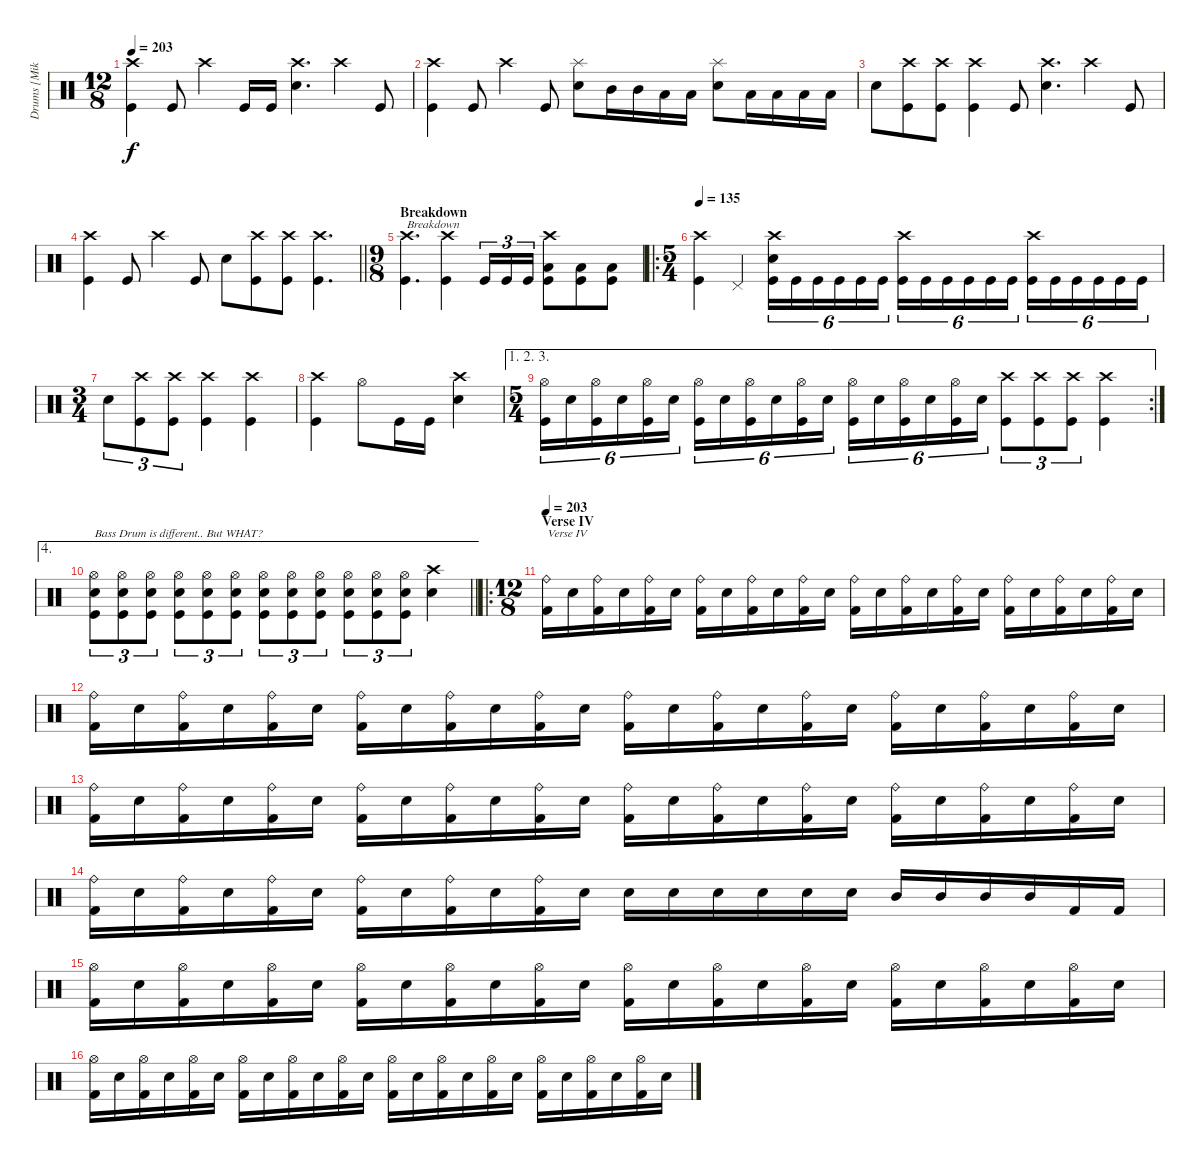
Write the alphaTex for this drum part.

\track ("Drums [Mike Smith]" "Drums [Mik") {instrument percussion}
\staff {score}
\articulation defaults
\ts (12 8)
\tempo 203
\clef neutral
\ks c
("Crash high (hit)" "Kick (hit)").4{dy f} "Kick (hit)".8 "Crash high (hit)".4 "Kick (hit)".16 "Kick (hit)".16 ("Crash high (hit)" "Electric Snare (hit)").4{d} "Crash high (hit)".4 "Kick (hit)".8 |
("Crash high (hit)" "Kick (hit)").4 "Kick (hit)".8 "Crash high (hit)".4 "Kick (hit)".8 ("Splash (hit)" "Electric Snare (hit)").8 "Mid Tom (hit)".16 "Mid Tom (hit)".16 "Low Tom (hit)".16 "Low Tom (hit)".16 ("Splash (hit)" "Electric Snare (hit)").8 "Low Tom (hit)".16 "Low Tom (hit)".16 "Low Floor Tom (hit)".16 "Low Floor Tom (hit)".16 |
"Electric Snare (hit)".8 ("Crash high (hit)" "Kick (hit)").8 ("Crash high (hit)" "Kick (hit)").8 ("Crash high (hit)" "Kick (hit)").4 "Kick (hit)".8 ("Crash high (hit)" "Electric Snare (hit)").4{d} "Crash high (hit)".4 "Kick (hit)".8 |
\barLineRight lightlight
("Crash high (hit)" "Kick (hit)").4 "Kick (hit)".8 "Crash high (hit)".4 "Kick (hit)".8 "Electric Snare (hit)".8 ("Crash high (hit)" "Kick (hit)").8 ("Crash high (hit)" "Kick (hit)").8 ("Crash high (hit)" "Kick (hit)").4{d} |
\ts (9 8)
\section ("" "Breakdown")
("Crash high (hit)" "Kick (hit)").4{d txt "Breakdown"} ("Crash high (hit)" "Kick (hit)").4 "Kick (hit)".16{tu (3 2)} "Kick (hit)".16{tu (3 2)} "Kick (hit)".16{tu (3 2)} ("Crash high (hit)" "Low Floor Tom (hit)" "Kick (hit)").8 ("Low Floor Tom (hit)" "Kick (hit)").8 ("Low Floor Tom (hit)" "Kick (hit)").8 |
\ro
\ts (5 4)
\tempo 135
("Crash high (hit)" "Kick (hit)").4 "Pedal Hi-Hat (hit)".4 ("Crash high (hit)" "Electric Snare (hit)" "Kick (hit)").16{tu (6 4)} "Kick (hit)".16{tu (6 4)} "Kick (hit)".16{tu (6 4)} "Kick (hit)".16{tu (6 4)} "Kick (hit)".16{tu (6 4)} "Kick (hit)".16{tu (6 4)} ("Crash high (hit)" "Kick (hit)").16{tu (6 4)} "Kick (hit)".16{tu (6 4)} "Kick (hit)".16{tu (6 4)} "Kick (hit)".16{tu (6 4)} "Kick (hit)".16{tu (6 4)} "Kick (hit)".16{tu (6 4)} ("Crash high (hit)" "Kick (hit)").16{tu (6 4)} "Kick (hit)".16{tu (6 4)} "Kick (hit)".16{tu (6 4)} "Kick (hit)".16{tu (6 4)} "Kick (hit)".16{tu (6 4)} "Kick (hit)".16{tu (6 4)} |
\ts (3 4)
"Electric Snare (hit)".8{tu (3 2)} ("Crash high (hit)" "Kick (hit)").8{tu (3 2)} ("Crash high (hit)" "Kick (hit)").8{tu (3 2)} ("Crash high (hit)" "Kick (hit)").4 ("Crash high (hit)" "Kick (hit)").4 |
("Crash high (hit)" "Kick (hit)").4 "Hi-Hat (open)".8 "Kick (hit)".16 "Kick (hit)".16 ("Crash high (hit)" "Electric Snare (hit)").4 |
\ae (1 2 3)
\rc 2
\ts (5 4)
("Hi-Hat (open)" "Kick (hit)").16{tu (6 4)} "Electric Snare (hit)".16{tu (6 4)} ("Hi-Hat (open)" "Kick (hit)").16{tu (6 4)} "Electric Snare (hit)".16{tu (6 4)} ("Hi-Hat (open)" "Kick (hit)").16{tu (6 4)} "Electric Snare (hit)".16{tu (6 4)} ("Hi-Hat (open)" "Kick (hit)").16{tu (6 4)} "Electric Snare (hit)".16{tu (6 4)} ("Hi-Hat (open)" "Kick (hit)").16{tu (6 4)} "Electric Snare (hit)".16{tu (6 4)} ("Hi-Hat (open)" "Kick (hit)").16{tu (6 4)} "Electric Snare (hit)".16{tu (6 4)} ("Hi-Hat (open)" "Kick (hit)").16{tu (6 4)} "Electric Snare (hit)".16{tu (6 4)} ("Hi-Hat (open)" "Kick (hit)").16{tu (6 4)} "Electric Snare (hit)".16{tu (6 4)} ("Hi-Hat (open)" "Kick (hit)").16{tu (6 4)} "Electric Snare (hit)".16{tu (6 4)} ("Crash high (hit)" "Kick (hit)").8{tu (3 2)} ("Crash high (hit)" "Kick (hit)").8{tu (3 2)} ("Crash high (hit)" "Kick (hit)").8{tu (3 2)} ("Crash high (hit)" "Kick (hit)").4 |
\ae 4
\barLineRight lightlight
("Kick (hit)" "Hi-Hat (open)" "Electric Snare (hit)").8{tu (3 2) txt "Bass Drum is different.. But WHAT?"} ("Kick (hit)" "Hi-Hat (open)" "Electric Snare (hit)").8{tu (3 2)} ("Kick (hit)" "Hi-Hat (open)" "Electric Snare (hit)").8{tu (3 2)} ("Kick (hit)" "Hi-Hat (open)" "Electric Snare (hit)").8{tu (3 2)} ("Kick (hit)" "Hi-Hat (open)" "Electric Snare (hit)").8{tu (3 2)} ("Kick (hit)" "Hi-Hat (open)" "Electric Snare (hit)").8{tu (3 2)} ("Kick (hit)" "Hi-Hat (open)" "Electric Snare (hit)").8{tu (3 2)} ("Kick (hit)" "Hi-Hat (open)" "Electric Snare (hit)").8{tu (3 2)} ("Kick (hit)" "Hi-Hat (open)" "Electric Snare (hit)").8{tu (3 2)} ("Kick (hit)" "Hi-Hat (open)" "Electric Snare (hit)").8{tu (3 2)} ("Kick (hit)" "Hi-Hat (open)" "Electric Snare (hit)").8{tu (3 2)} ("Kick (hit)" "Hi-Hat (open)" "Electric Snare (hit)").8{tu (3 2)} ("Crash high (hit)" "Electric Snare (hit)").4 |
\ro
\ts (12 8)
\section ("" "Verse IV")
\tempo 203
("Ride (bell)" "Kick (hit) 2").16{txt "Verse IV"} "Electric Snare (hit)".16 ("Ride (bell)" "Kick (hit) 2").16 "Electric Snare (hit)".16 ("Ride (bell)" "Kick (hit) 2").16 "Electric Snare (hit)".16 ("Ride (bell)" "Kick (hit) 2").16 "Electric Snare (hit)".16 ("Ride (bell)" "Kick (hit) 2").16 "Electric Snare (hit)".16 ("Ride (bell)" "Kick (hit) 2").16 "Electric Snare (hit)".16 ("Ride (bell)" "Kick (hit) 2").16 "Electric Snare (hit)".16 ("Ride (bell)" "Kick (hit) 2").16 "Electric Snare (hit)".16 ("Ride (bell)" "Kick (hit) 2").16 "Electric Snare (hit)".16 ("Ride (bell)" "Kick (hit) 2").16 "Electric Snare (hit)".16 ("Ride (bell)" "Kick (hit) 2").16 "Electric Snare (hit)".16 ("Ride (bell)" "Kick (hit) 2").16 "Electric Snare (hit)".16 |
("Ride (bell)" "Kick (hit) 2").16 "Electric Snare (hit)".16 ("Ride (bell)" "Kick (hit) 2").16 "Electric Snare (hit)".16 ("Ride (bell)" "Kick (hit) 2").16 "Electric Snare (hit)".16 ("Ride (bell)" "Kick (hit) 2").16 "Electric Snare (hit)".16 ("Ride (bell)" "Kick (hit) 2").16 "Electric Snare (hit)".16 ("Ride (bell)" "Kick (hit) 2").16 "Electric Snare (hit)".16 ("Ride (bell)" "Kick (hit) 2").16 "Electric Snare (hit)".16 ("Ride (bell)" "Kick (hit) 2").16 "Electric Snare (hit)".16 ("Ride (bell)" "Kick (hit) 2").16 "Electric Snare (hit)".16 ("Ride (bell)" "Kick (hit) 2").16 "Electric Snare (hit)".16 ("Ride (bell)" "Kick (hit) 2").16 "Electric Snare (hit)".16 ("Ride (bell)" "Kick (hit) 2").16 "Electric Snare (hit)".16 |
("Ride (bell)" "Kick (hit) 2").16 "Electric Snare (hit)".16 ("Ride (bell)" "Kick (hit) 2").16 "Electric Snare (hit)".16 ("Ride (bell)" "Kick (hit) 2").16 "Electric Snare (hit)".16 ("Ride (bell)" "Kick (hit) 2").16 "Electric Snare (hit)".16 ("Ride (bell)" "Kick (hit) 2").16 "Electric Snare (hit)".16 ("Ride (bell)" "Kick (hit) 2").16 "Electric Snare (hit)".16 ("Ride (bell)" "Kick (hit) 2").16 "Electric Snare (hit)".16 ("Ride (bell)" "Kick (hit) 2").16 "Electric Snare (hit)".16 ("Ride (bell)" "Kick (hit) 2").16 "Electric Snare (hit)".16 ("Ride (bell)" "Kick (hit) 2").16 "Electric Snare (hit)".16 ("Ride (bell)" "Kick (hit) 2").16 "Electric Snare (hit)".16 ("Ride (bell)" "Kick (hit) 2").16 "Electric Snare (hit)".16 |
("Ride (bell)" "Kick (hit) 2").16 "Electric Snare (hit)".16 ("Ride (bell)" "Kick (hit) 2").16 "Electric Snare (hit)".16 ("Ride (bell)" "Kick (hit) 2").16 "Electric Snare (hit)".16 ("Ride (bell)" "Kick (hit) 2").16 "Electric Snare (hit)".16 ("Ride (bell)" "Kick (hit) 2").16 "Electric Snare (hit)".16 ("Ride (bell)" "Kick (hit) 2").16 "Electric Snare (hit)".16 "Electric Snare (hit)".16 "Electric Snare (hit)".16 "Electric Snare (hit)".16 "Electric Snare (hit)".16 "Electric Snare (hit)".16 "Electric Snare (hit)".16 "Mid Tom (hit)".16 "Mid Tom (hit)".16 "Mid Tom (hit)".16 "Mid Tom (hit)".16 "Kick (hit) 2".16 "Kick (hit) 2".16 |
("Hi-Hat (open)" "Kick (hit) 2").16 "Electric Snare (hit)".16 ("Hi-Hat (open)" "Kick (hit) 2").16 "Electric Snare (hit)".16 ("Hi-Hat (open)" "Kick (hit) 2").16 "Electric Snare (hit)".16 ("Hi-Hat (open)" "Kick (hit) 2").16 "Electric Snare (hit)".16 ("Hi-Hat (open)" "Kick (hit) 2").16 "Electric Snare (hit)".16 ("Hi-Hat (open)" "Kick (hit) 2").16 "Electric Snare (hit)".16 ("Hi-Hat (open)" "Kick (hit) 2").16 "Electric Snare (hit)".16 ("Hi-Hat (open)" "Kick (hit) 2").16 "Electric Snare (hit)".16 ("Hi-Hat (open)" "Kick (hit) 2").16 "Electric Snare (hit)".16 ("Hi-Hat (open)" "Kick (hit) 2").16 "Electric Snare (hit)".16 ("Hi-Hat (open)" "Kick (hit) 2").16 "Electric Snare (hit)".16 ("Hi-Hat (open)" "Kick (hit) 2").16 "Electric Snare (hit)".16 |
("Hi-Hat (open)" "Kick (hit) 2").16 "Electric Snare (hit)".16 ("Hi-Hat (open)" "Kick (hit) 2").16 "Electric Snare (hit)".16 ("Hi-Hat (open)" "Kick (hit) 2").16 "Electric Snare (hit)".16 ("Hi-Hat (open)" "Kick (hit) 2").16 "Electric Snare (hit)".16 ("Hi-Hat (open)" "Kick (hit) 2").16 "Electric Snare (hit)".16 ("Hi-Hat (open)" "Kick (hit) 2").16 "Electric Snare (hit)".16 ("Hi-Hat (open)" "Kick (hit) 2").16 "Electric Snare (hit)".16 ("Hi-Hat (open)" "Kick (hit) 2").16 "Electric Snare (hit)".16 ("Hi-Hat (open)" "Kick (hit) 2").16 "Electric Snare (hit)".16 ("Hi-Hat (open)" "Kick (hit) 2").16 "Electric Snare (hit)".16 ("Hi-Hat (open)" "Kick (hit) 2").16 "Electric Snare (hit)".16 ("Hi-Hat (open)" "Kick (hit) 2").16 "Electric Snare (hit)".16
